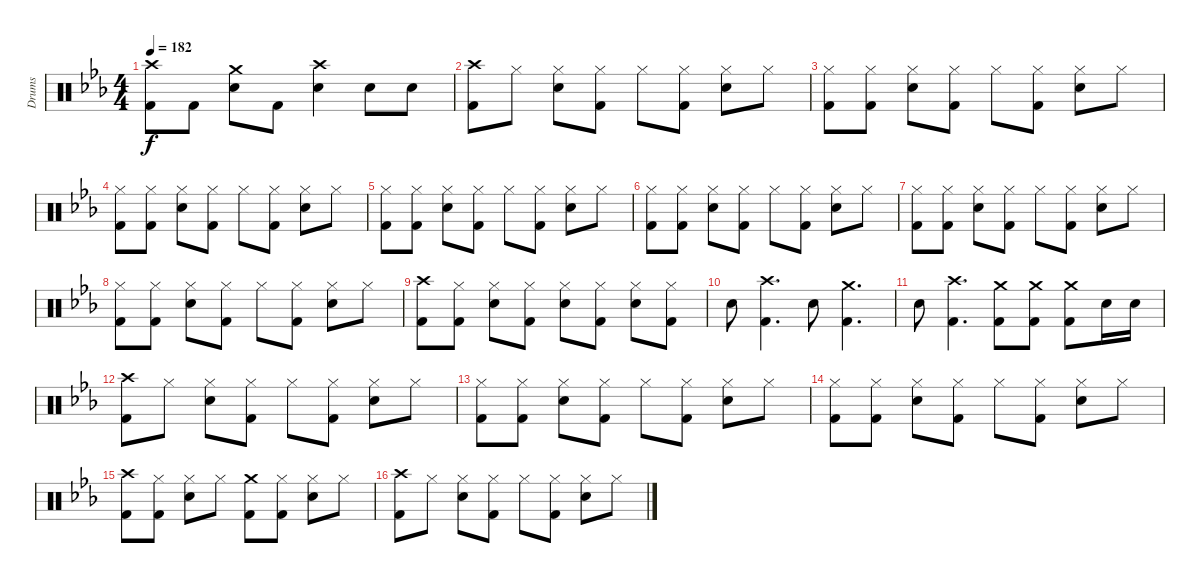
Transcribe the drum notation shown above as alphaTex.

\track ("Drums" "Drums") {instrument percussion}
\staff {score}
\articulation defaults
\ts (4 4)
\tempo 182
\clef neutral
\ks eb
("Crash high (hit)" "Kick (hit) 2").8{dy f} "Kick (hit) 2".8 ("Crash medium (hit)" "Snare (hit) 2").8 "Kick (hit) 2".8 ("Crash high (hit)" "Snare (hit) 2").4 "Snare (hit) 2".8 "Snare (hit) 2".8 |
("Crash high (hit)" "Kick (hit) 2").8 "Hi-Hat (closed)".8 ("Hi-Hat (closed)" "Snare (hit) 2").8 ("Hi-Hat (closed)" "Kick (hit) 2").8 "Hi-Hat (closed)".8 ("Hi-Hat (closed)" "Kick (hit) 2").8 ("Hi-Hat (closed)" "Snare (hit) 2").8 "Hi-Hat (closed)".8 |
("Hi-Hat (closed)" "Kick (hit) 2").8 ("Hi-Hat (closed)" "Kick (hit) 2").8 ("Hi-Hat (closed)" "Snare (hit) 2").8 ("Hi-Hat (closed)" "Kick (hit) 2").8 "Hi-Hat (closed)".8 ("Hi-Hat (closed)" "Kick (hit) 2").8 ("Hi-Hat (closed)" "Snare (hit) 2").8 "Hi-Hat (closed)".8 |
("Hi-Hat (closed)" "Kick (hit) 2").8 ("Hi-Hat (closed)" "Kick (hit) 2").8 ("Hi-Hat (closed)" "Snare (hit) 2").8 ("Hi-Hat (closed)" "Kick (hit) 2").8 "Hi-Hat (closed)".8 ("Hi-Hat (closed)" "Kick (hit) 2").8 ("Hi-Hat (closed)" "Snare (hit) 2").8 "Hi-Hat (closed)".8 |
("Hi-Hat (closed)" "Kick (hit) 2").8 ("Hi-Hat (closed)" "Kick (hit) 2").8 ("Hi-Hat (closed)" "Snare (hit) 2").8 ("Hi-Hat (closed)" "Kick (hit) 2").8 "Hi-Hat (closed)".8 ("Hi-Hat (closed)" "Kick (hit) 2").8 ("Hi-Hat (closed)" "Snare (hit) 2").8 "Hi-Hat (closed)".8 |
("Hi-Hat (closed)" "Kick (hit) 2").8 ("Hi-Hat (closed)" "Kick (hit) 2").8 ("Hi-Hat (closed)" "Snare (hit) 2").8 ("Hi-Hat (closed)" "Kick (hit) 2").8 "Hi-Hat (closed)".8 ("Hi-Hat (closed)" "Kick (hit) 2").8 ("Hi-Hat (closed)" "Snare (hit) 2").8 "Hi-Hat (closed)".8 |
("Hi-Hat (closed)" "Kick (hit) 2").8 ("Hi-Hat (closed)" "Kick (hit) 2").8 ("Hi-Hat (closed)" "Snare (hit) 2").8 ("Hi-Hat (closed)" "Kick (hit) 2").8 "Hi-Hat (closed)".8 ("Hi-Hat (closed)" "Kick (hit) 2").8 ("Hi-Hat (closed)" "Snare (hit) 2").8 "Hi-Hat (closed)".8 |
("Hi-Hat (closed)" "Kick (hit) 2").8 ("Hi-Hat (closed)" "Kick (hit) 2").8 ("Hi-Hat (closed)" "Snare (hit) 2").8 ("Hi-Hat (closed)" "Kick (hit) 2").8 "Hi-Hat (closed)".8 ("Hi-Hat (closed)" "Kick (hit) 2").8 ("Hi-Hat (closed)" "Snare (hit) 2").8 "Hi-Hat (closed)".8 |
("Crash high (hit)" "Kick (hit) 2").8 ("Hi-Hat (closed)" "Kick (hit) 2").8 ("Hi-Hat (closed)" "Snare (hit) 2").8 ("Hi-Hat (closed)" "Kick (hit) 2").8 ("Hi-Hat (closed)" "Snare (hit) 2").8 ("Hi-Hat (closed)" "Kick (hit) 2").8 ("Hi-Hat (closed)" "Snare (hit) 2").8 ("Hi-Hat (closed)" "Kick (hit) 2").8 |
"Snare (hit) 2".8 ("Crash high (hit)" "Kick (hit) 2").4{d} "Snare (hit) 2".8 ("Crash medium (hit)" "Kick (hit) 2").4{d} |
"Snare (hit) 2".8 ("Crash high (hit)" "Kick (hit) 2").4{d} ("Crash medium (hit)" "Kick (hit) 2").8 ("Crash medium (hit)" "Kick (hit) 2").8 ("Crash medium (hit)" "Kick (hit) 2").8 "Snare (hit) 2".16 "Snare (hit) 2".16 |
("Crash high (hit)" "Kick (hit) 2").8 "Hi-Hat (closed)".8 ("Hi-Hat (closed)" "Snare (hit) 2").8 ("Hi-Hat (closed)" "Kick (hit) 2").8 "Hi-Hat (closed)".8 ("Hi-Hat (closed)" "Kick (hit) 2").8 ("Hi-Hat (closed)" "Snare (hit) 2").8 "Hi-Hat (closed)".8 |
("Hi-Hat (closed)" "Kick (hit) 2").8 ("Hi-Hat (closed)" "Kick (hit) 2").8 ("Hi-Hat (closed)" "Snare (hit) 2").8 ("Hi-Hat (closed)" "Kick (hit) 2").8 "Hi-Hat (closed)".8 ("Hi-Hat (closed)" "Kick (hit) 2").8 ("Hi-Hat (closed)" "Snare (hit) 2").8 "Hi-Hat (closed)".8 |
("Hi-Hat (closed)" "Kick (hit) 2").8 ("Hi-Hat (closed)" "Kick (hit) 2").8 ("Hi-Hat (closed)" "Snare (hit) 2").8 ("Hi-Hat (closed)" "Kick (hit) 2").8 "Hi-Hat (closed)".8 ("Hi-Hat (closed)" "Kick (hit) 2").8 ("Hi-Hat (closed)" "Snare (hit) 2").8 "Hi-Hat (closed)".8 |
("Crash high (hit)" "Kick (hit) 2").8 ("Hi-Hat (closed)" "Kick (hit) 2").8 ("Hi-Hat (closed)" "Snare (hit) 2").8 "Hi-Hat (closed)".8 ("Crash medium (hit)" "Kick (hit) 2").8 ("Hi-Hat (closed)" "Kick (hit) 2").8 ("Hi-Hat (closed)" "Snare (hit) 2").8 "Hi-Hat (closed)".8 |
("Crash high (hit)" "Kick (hit) 2").8 "Hi-Hat (closed)".8 ("Hi-Hat (closed)" "Snare (hit) 2").8 ("Hi-Hat (closed)" "Kick (hit) 2").8 "Hi-Hat (closed)".8 ("Hi-Hat (closed)" "Kick (hit) 2").8 ("Hi-Hat (closed)" "Snare (hit) 2").8 "Hi-Hat (closed)".8
